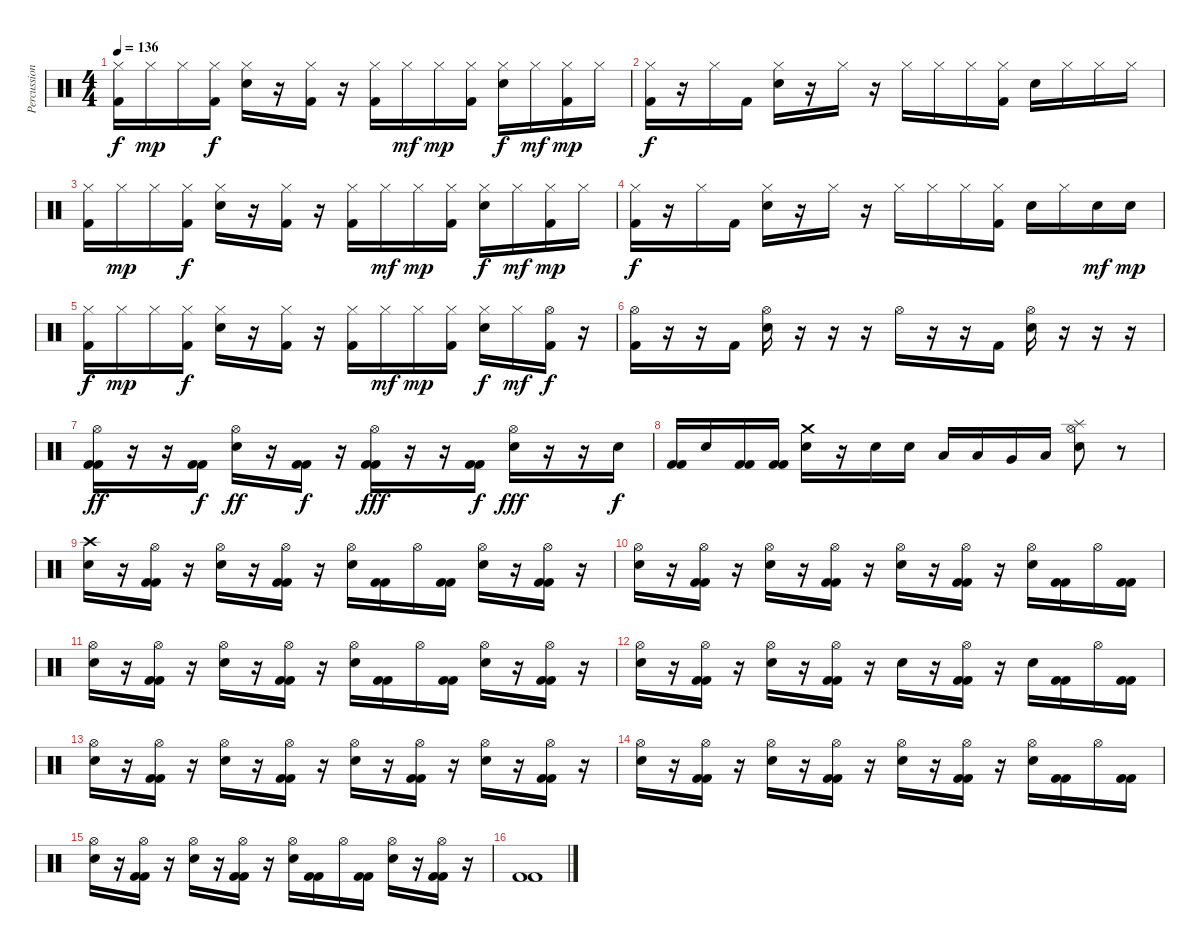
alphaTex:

\track ("Percussion" "Percussion") {instrument percussion}
\staff {score}
\articulation defaults
\ts (4 4)
\tempo 136
\clef neutral
\ks c
("Hi-Hat (closed)" "Kick (hit) 2").16{dy f} "Hi-Hat (closed)".16{dy mp} "Hi-Hat (closed)".16 ("Hi-Hat (closed)" "Kick (hit) 2").16{dy f} ("Hi-Hat (closed)" "Electric Snare (hit)").16 r.16 ("Hi-Hat (closed)" "Kick (hit) 2").16 r.16 ("Hi-Hat (closed)" "Kick (hit) 2").16 "Hi-Hat (closed)".16{dy mf} "Hi-Hat (closed)".16{dy mp} ("Hi-Hat (closed)" "Kick (hit) 2").16 ("Hi-Hat (closed)" "Electric Snare (hit)").16{dy f} "Hi-Hat (closed)".16{dy mf} ("Hi-Hat (closed)" "Kick (hit) 2").16{dy mp} "Hi-Hat (closed)".16 |
("Hi-Hat (closed)" "Kick (hit) 2").16{dy f} r.16 "Hi-Hat (closed)".16 "Kick (hit) 2".16 ("Hi-Hat (closed)" "Electric Snare (hit)").16 r.16 "Hi-Hat (closed)".16 r.16 "Hi-Hat (closed)".16 "Hi-Hat (closed)".16 "Hi-Hat (closed)".16 ("Hi-Hat (closed)" "Kick (hit) 2").16 "Electric Snare (hit)".16 "Hi-Hat (closed)".16 "Hi-Hat (closed)".16 "Hi-Hat (closed)".16 |
("Hi-Hat (closed)" "Kick (hit) 2").16 "Hi-Hat (closed)".16{dy mp} "Hi-Hat (closed)".16 ("Hi-Hat (closed)" "Kick (hit) 2").16{dy f} ("Hi-Hat (closed)" "Electric Snare (hit)").16 r.16 ("Hi-Hat (closed)" "Kick (hit) 2").16 r.16 ("Hi-Hat (closed)" "Kick (hit) 2").16 "Hi-Hat (closed)".16{dy mf} "Hi-Hat (closed)".16{dy mp} ("Hi-Hat (closed)" "Kick (hit) 2").16 ("Hi-Hat (closed)" "Electric Snare (hit)").16{dy f} "Hi-Hat (closed)".16{dy mf} ("Hi-Hat (closed)" "Kick (hit) 2").16{dy mp} "Hi-Hat (closed)".16 |
("Hi-Hat (closed)" "Kick (hit) 2").16{dy f} r.16 "Hi-Hat (closed)".16 "Kick (hit) 2".16 ("Hi-Hat (closed)" "Electric Snare (hit)").16 r.16 "Hi-Hat (closed)".16 r.16 "Hi-Hat (closed)".16 "Hi-Hat (closed)".16 "Hi-Hat (closed)".16 ("Hi-Hat (closed)" "Kick (hit) 2").16 "Electric Snare (hit)".16 "Hi-Hat (closed)".16 "Electric Snare (hit)".16{dy mf} "Electric Snare (hit)".16{dy mp} |
("Hi-Hat (closed)" "Kick (hit) 2").16{dy f} "Hi-Hat (closed)".16{dy mp} "Hi-Hat (closed)".16 ("Hi-Hat (closed)" "Kick (hit) 2").16{dy f} ("Hi-Hat (closed)" "Electric Snare (hit)").16 r.16 ("Hi-Hat (closed)" "Kick (hit) 2").16 r.16 ("Hi-Hat (closed)" "Kick (hit) 2").16 "Hi-Hat (closed)".16{dy mf} "Hi-Hat (closed)".16{dy mp} ("Hi-Hat (closed)" "Kick (hit) 2").16 ("Hi-Hat (closed)" "Electric Snare (hit)").16{dy f} "Hi-Hat (closed)".16{dy mf} ("Hi-Hat (open)" "Kick (hit) 2").16{dy f} r.16 |
("Hi-Hat (open)" "Kick (hit) 2").16 r.16 r.16 "Kick (hit) 2".16 ("Hi-Hat (open)" "Electric Snare (hit)").16 r.16 r.16 r.16 "Hi-Hat (open)".16 r.16 r.16 "Kick (hit) 2".16 ("Hi-Hat (open)" "Electric Snare (hit)").16 r.16 r.16 r.16 |
("Hi-Hat (open)" "Kick (hit) 2" "Kick (hit) 2").16{dy ff} r.16 r.16 ("Kick (hit) 2" "Kick (hit) 2").16{dy f} ("Hi-Hat (open)" "Electric Snare (hit)").16{dy ff} r.16 ("Kick (hit) 2" "Kick (hit) 2").16{dy f} r.16 ("Hi-Hat (open)" "Kick (hit) 2" "Kick (hit) 2").16{dy fff} r.16 r.16 ("Kick (hit) 2" "Kick (hit) 2").16{dy f} ("Hi-Hat (open)" "Electric Snare (hit)").16{dy fff} r.16 r.16 "Electric Snare (hit)".16{dy f} |
("Kick (hit) 2" "Kick (hit) 2").16 "Electric Snare (hit)".16 ("Kick (hit) 2" "Kick (hit) 2").16 ("Kick (hit) 2" "Kick (hit) 2").16 ("Crash medium (hit)" "Electric Snare (hit)").16 r.16 "Electric Snare (hit)".16 "Electric Snare (hit)".16 "Low Tom (hit)".16 "Low Tom (hit)".16 "Very Low Tom (hit)".16 "Low Floor Tom (hit)".16 ("Splash (hit)" "Hi-Hat (open)" "Electric Snare (hit)").8 r.8 |
("Crash high (hit)" "Electric Snare (hit)").16 r.16 ("Hi-Hat (open)" "Kick (hit) 2" "Kick (hit) 2").16 r.16 ("Hi-Hat (open)" "Electric Snare (hit)").16 r.16 ("Hi-Hat (open)" "Kick (hit) 2" "Kick (hit) 2").16 r.16 ("Hi-Hat (open)" "Electric Snare (hit)").16 ("Kick (hit) 2" "Kick (hit) 2").16 "Hi-Hat (open)".16 ("Kick (hit) 2" "Kick (hit) 2").16 ("Hi-Hat (open)" "Electric Snare (hit)").16 r.16 ("Hi-Hat (open)" "Kick (hit) 2" "Kick (hit) 2").16 r.16 |
("Hi-Hat (open)" "Electric Snare (hit)").16 r.16 ("Hi-Hat (open)" "Kick (hit) 2" "Kick (hit) 2").16 r.16 ("Hi-Hat (open)" "Electric Snare (hit)").16 r.16 ("Hi-Hat (open)" "Kick (hit) 2" "Kick (hit) 2").16 r.16 ("Hi-Hat (open)" "Electric Snare (hit)").16 r.16 ("Hi-Hat (open)" "Kick (hit) 2" "Kick (hit) 2").16 r.16 ("Hi-Hat (open)" "Electric Snare (hit)").16 ("Kick (hit) 2" "Kick (hit) 2").16 "Hi-Hat (open)".16 ("Kick (hit) 2" "Kick (hit) 2").16 |
("Hi-Hat (open)" "Electric Snare (hit)").16 r.16 ("Hi-Hat (open)" "Kick (hit) 2" "Kick (hit) 2").16 r.16 ("Hi-Hat (open)" "Electric Snare (hit)").16 r.16 ("Hi-Hat (open)" "Kick (hit) 2" "Kick (hit) 2").16 r.16 ("Hi-Hat (open)" "Electric Snare (hit)").16 ("Kick (hit) 2" "Kick (hit) 2").16 "Hi-Hat (open)".16 ("Kick (hit) 2" "Kick (hit) 2").16 ("Hi-Hat (open)" "Electric Snare (hit)").16 r.16 ("Hi-Hat (open)" "Kick (hit) 2" "Kick (hit) 2").16 r.16 |
("Hi-Hat (open)" "Electric Snare (hit)").16 r.16 ("Hi-Hat (open)" "Kick (hit) 2" "Kick (hit) 2").16 r.16 ("Hi-Hat (open)" "Electric Snare (hit)").16 r.16 ("Hi-Hat (open)" "Kick (hit) 2" "Kick (hit) 2").16 r.16 "Electric Snare (hit)".16 r.16 ("Hi-Hat (open)" "Kick (hit) 2" "Kick (hit) 2").16 r.16 "Electric Snare (hit)".16 ("Kick (hit) 2" "Kick (hit) 2").16 "Hi-Hat (open)".16 ("Kick (hit) 2" "Kick (hit) 2").16 |
("Hi-Hat (open)" "Electric Snare (hit)").16 r.16 ("Hi-Hat (open)" "Kick (hit) 2" "Kick (hit) 2").16 r.16 ("Hi-Hat (open)" "Electric Snare (hit)").16 r.16 ("Hi-Hat (open)" "Kick (hit) 2" "Kick (hit) 2").16 r.16 ("Hi-Hat (open)" "Electric Snare (hit)").16 r.16 ("Hi-Hat (open)" "Kick (hit) 2" "Kick (hit) 2").16 r.16 ("Hi-Hat (open)" "Electric Snare (hit)").16 r.16 ("Hi-Hat (open)" "Kick (hit) 2" "Kick (hit) 2").16 r.16 |
("Hi-Hat (open)" "Electric Snare (hit)").16 r.16 ("Hi-Hat (open)" "Kick (hit) 2" "Kick (hit) 2").16 r.16 ("Hi-Hat (open)" "Electric Snare (hit)").16 r.16 ("Hi-Hat (open)" "Kick (hit) 2" "Kick (hit) 2").16 r.16 ("Hi-Hat (open)" "Electric Snare (hit)").16 r.16 ("Hi-Hat (open)" "Kick (hit) 2" "Kick (hit) 2").16 r.16 ("Hi-Hat (open)" "Electric Snare (hit)").16 ("Kick (hit) 2" "Kick (hit) 2").16 "Hi-Hat (open)".16 ("Kick (hit) 2" "Kick (hit) 2").16 |
("Hi-Hat (open)" "Electric Snare (hit)").16 r.16 ("Hi-Hat (open)" "Kick (hit) 2" "Kick (hit) 2").16 r.16 ("Hi-Hat (open)" "Electric Snare (hit)").16 r.16 ("Hi-Hat (open)" "Kick (hit) 2" "Kick (hit) 2").16 r.16 ("Hi-Hat (open)" "Electric Snare (hit)").16 ("Kick (hit) 2" "Kick (hit) 2").16 "Hi-Hat (open)".16 ("Kick (hit) 2" "Kick (hit) 2").16 ("Hi-Hat (open)" "Electric Snare (hit)").16 r.16 ("Hi-Hat (open)" "Kick (hit) 2" "Kick (hit) 2").16 r.16 |
("Kick (hit) 2" "Kick (hit) 2").1
